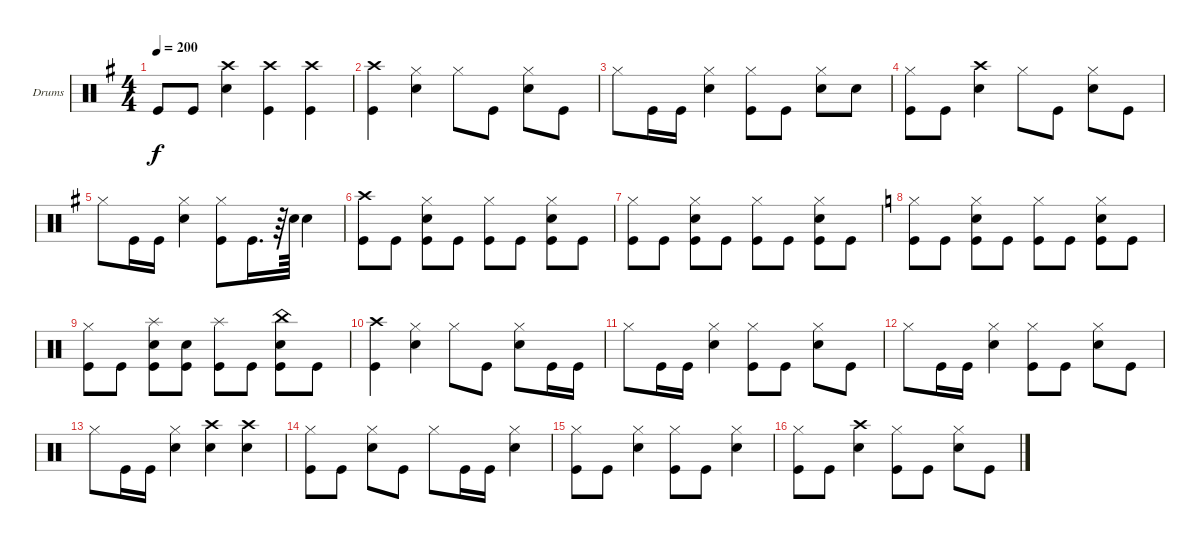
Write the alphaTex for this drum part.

\bracketExtendMode groupsimilarinstruments
\firstSystemTrackNameOrientation horizontal
\otherSystemsTrackNameOrientation horizontal
\track ("Drumkit" "Drums") {instrument percussion}
\staff {score}
\articulation defaults
\ts (4 4)
\tempo 200
\clef neutral
\ks g "Kick (hit)".8{dy f} "Kick (hit)".8
("Crash high (hit)" "Snare (hit) 2").4 ("Crash high (hit)" "Kick (hit)").4 ("Crash high (hit)" "Kick (hit)").4 |
("Kick (hit)" "Crash high (hit)").4 ("Hi-Hat (closed)" "Snare (hit) 2").4 "Hi-Hat (closed)".8 "Kick (hit)".8 ("Snare (hit) 2" "Hi-Hat (closed)").8 "Kick (hit)".8 |
"Hi-Hat (closed)".8 "Kick (hit)".16 "Kick (hit)".16 ("Snare (hit) 2" "Hi-Hat (closed)").4 ("Hi-Hat (closed)" "Kick (hit)").8 "Kick (hit)".8 ("Snare (hit) 2" "Hi-Hat (closed)").8 "Snare (hit) 2".8 |
("Hi-Hat (closed)" "Kick (hit)").8 "Kick (hit)".8 ("Crash high (hit)" "Snare (hit) 2").4 "Hi-Hat (closed)".8 "Kick (hit)".8 ("Snare (hit) 2" "Hi-Hat (closed)").8 "Kick (hit)".8 |
"Hi-Hat (closed)".8 "Kick (hit)".16 "Kick (hit)".16 ("Snare (hit) 2" "Hi-Hat (closed)").4 ("Hi-Hat (closed)" "Kick (hit)").8 "Kick (hit)".16{d} r.64 "Snare (hit) 2".64 "Snare (hit) 2".4 |
("Kick (hit)" "Crash high (hit)").8 "Kick (hit)".8 ("Hi-Hat (closed)" "Snare (hit) 2" "Kick (hit)").8 "Kick (hit)".8 ("Hi-Hat (closed)" "Kick (hit)").8 "Kick (hit)".8 ("Kick (hit)" "Snare (hit) 2" "Hi-Hat (closed)").8 "Kick (hit)".8 |
("Kick (hit)" "Hi-Hat (closed)").8 "Kick (hit)".8 ("Snare (hit) 2" "Hi-Hat (closed)" "Kick (hit)").8 "Kick (hit)".8 ("Kick (hit)" "Hi-Hat (closed)").8 "Kick (hit)".8 ("Kick (hit)" "Snare (hit) 2" "Hi-Hat (closed)").8 "Kick (hit)".8 |
\ks c
("Kick (hit)" "Hi-Hat (closed)").8 "Kick (hit)".8 ("Snare (hit) 2" "Hi-Hat (closed)" "Kick (hit)").8 "Kick (hit)".8 ("Kick (hit)" "Hi-Hat (closed)").8 "Kick (hit)".8 ("Kick (hit)" "Snare (hit) 2" "Hi-Hat (closed)").8 "Kick (hit)".8 |
("Kick (hit)" "Hi-Hat (closed)").8 "Kick (hit)".8 ("Kick (hit)" "Splash (hit)" "Snare (hit) 2").8 ("Kick (hit)" "Snare (hit) 2").8 ("Kick (hit)" "Splash (hit)").8 "Kick (hit)".8 ("Kick (hit)" "Snare (hit) 2" "China (hit)").8 "Kick (hit)".8 |
("Kick (hit)" "Crash high (hit)").4 ("Hi-Hat (closed)" "Snare (hit) 2").4 "Hi-Hat (closed)".8 "Kick (hit)".8 ("Snare (hit) 2" "Hi-Hat (closed)").8 "Kick (hit)".16 "Kick (hit)".16 |
"Hi-Hat (closed)".8 "Kick (hit)".16 "Kick (hit)".16 ("Snare (hit) 2" "Hi-Hat (closed)").4 ("Hi-Hat (closed)" "Kick (hit)").8 "Kick (hit)".8 ("Snare (hit) 2" "Hi-Hat (closed)").8 "Kick (hit)".8 |
"Hi-Hat (closed)".8 "Kick (hit)".16 "Kick (hit)".16 ("Snare (hit) 2" "Hi-Hat (closed)").4 ("Hi-Hat (closed)" "Kick (hit)").8 "Kick (hit)".8 ("Snare (hit) 2" "Hi-Hat (closed)").8 "Kick (hit)".8 |
"Hi-Hat (closed)".8 "Kick (hit)".16 "Kick (hit)".16 ("Snare (hit) 2" "Hi-Hat (closed)").4 ("Crash high (hit)" "Snare (hit) 2").4 ("Crash high (hit)" "Snare (hit) 2").4 |
("Kick (hit)" "Hi-Hat (closed)").8 "Kick (hit)".8 ("Snare (hit) 2" "Hi-Hat (closed)").8 "Kick (hit)".8 "Hi-Hat (closed)".8 "Kick (hit)".16 "Kick (hit)".16 ("Snare (hit) 2" "Hi-Hat (closed)").4 |
("Kick (hit)" "Hi-Hat (closed)").8 "Kick (hit)".8 ("Snare (hit) 2" "Hi-Hat (closed)").4 ("Kick (hit)" "Hi-Hat (closed)").8 "Kick (hit)".8 ("Snare (hit) 2" "Hi-Hat (closed)").4 |
("Kick (hit)" "Hi-Hat (closed)").8 "Kick (hit)".8 ("Crash high (hit)" "Snare (hit) 2").4 ("Kick (hit)" "Hi-Hat (closed)").8 "Kick (hit)".8 ("Snare (hit) 2" "Hi-Hat (closed)").8 "Kick (hit)".8
